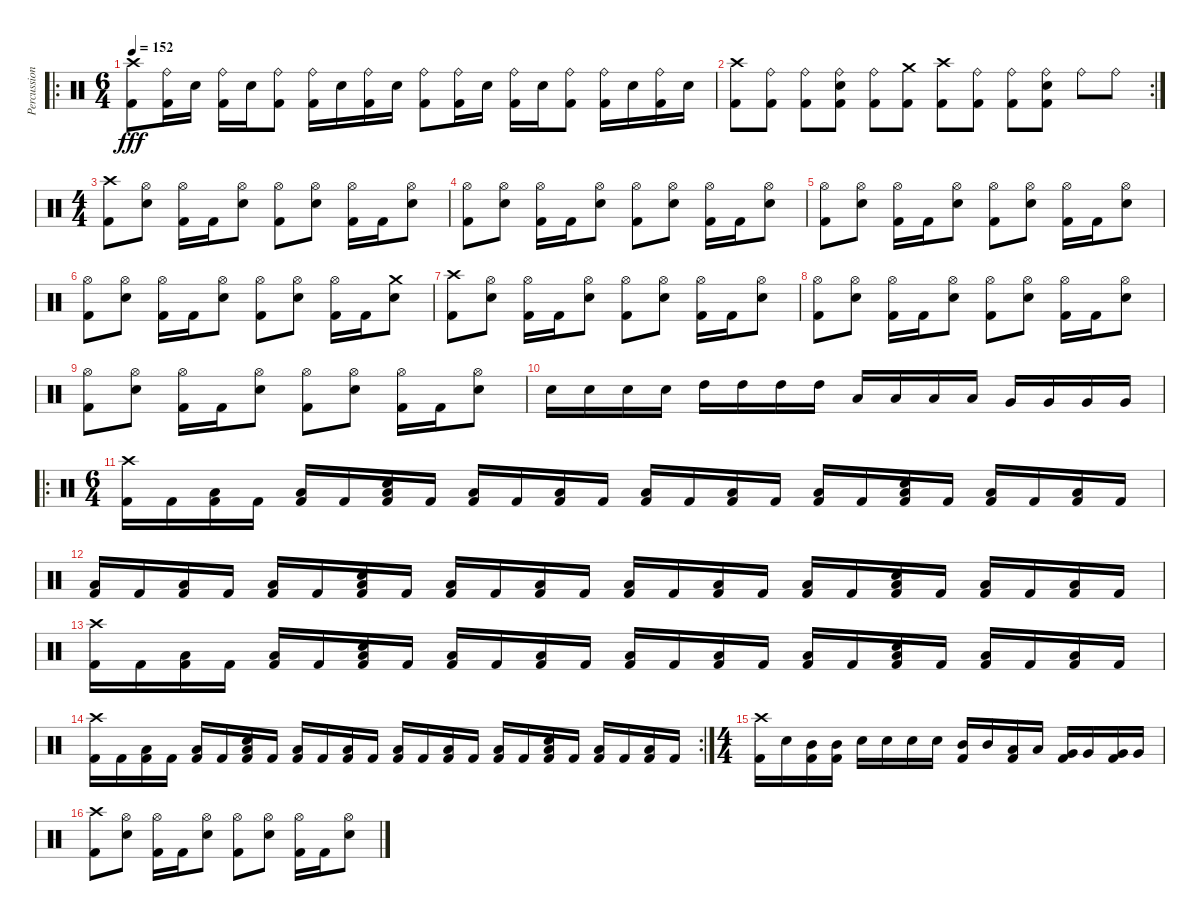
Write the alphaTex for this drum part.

\track ("Percussion" "Percussion") {instrument percussion}
\staff {score}
\articulation defaults
\ro
\ts (6 4)
\tempo 152
\clef neutral
\ks c
("Crash high (hit)" "Kick (hit) 2").8{dy fff} ("Ride (bell)" "Kick (hit) 2").16 "Snare (hit) 2".16 ("Ride (bell)" "Kick (hit) 2").16 "Snare (hit) 2".16 ("Ride (bell)" "Kick (hit) 2").8 ("Ride (bell)" "Kick (hit) 2").16 "Snare (hit) 2".16 ("Ride (bell)" "Kick (hit) 2").16 "Snare (hit) 2".16 ("Ride (bell)" "Kick (hit) 2").8 ("Ride (bell)" "Kick (hit) 2").16 "Snare (hit) 2".16 ("Ride (bell)" "Kick (hit) 2").16 "Snare (hit) 2".16 ("Ride (bell)" "Kick (hit) 2").8 ("Ride (bell)" "Kick (hit) 2").16 "Snare (hit) 2".16 ("Ride (bell)" "Kick (hit) 2").16 "Snare (hit) 2".16 |
\rc 2
("Crash high (hit)" "Kick (hit) 2").8 ("Ride (bell)" "Kick (hit) 2").8 ("Ride (bell)" "Kick (hit) 2").8 ("Ride (bell)" "Kick (hit) 2" "Snare (hit) 2").8 ("Ride (bell)" "Kick (hit) 2").8 ("Crash medium (hit)" "Kick (hit) 2").8 ("Crash high (hit)" "Kick (hit) 2").8 ("Ride (bell)" "Kick (hit) 2").8 ("Ride (bell)" "Kick (hit) 2").8 ("Ride (bell)" "Kick (hit) 2" "Snare (hit) 2").8 "Ride (bell)".8 "Ride (bell)".8 |
\ts (4 4)
("Crash high (hit)" "Kick (hit) 2").8 ("Hi-Hat (open)" "Snare (hit) 2").8 ("Hi-Hat (open)" "Kick (hit) 2").16 "Kick (hit) 2".16 ("Hi-Hat (open)" "Snare (hit) 2").8 ("Hi-Hat (open)" "Kick (hit) 2").8 ("Hi-Hat (open)" "Snare (hit) 2").8 ("Hi-Hat (open)" "Kick (hit) 2").16 "Kick (hit) 2".16 ("Hi-Hat (open)" "Snare (hit) 2").8 |
("Hi-Hat (open)" "Kick (hit) 2").8 ("Hi-Hat (open)" "Snare (hit) 2").8 ("Hi-Hat (open)" "Kick (hit) 2").16 "Kick (hit) 2".16 ("Hi-Hat (open)" "Snare (hit) 2").8 ("Hi-Hat (open)" "Kick (hit) 2").8 ("Hi-Hat (open)" "Snare (hit) 2").8 ("Hi-Hat (open)" "Kick (hit) 2").16 "Kick (hit) 2".16 ("Hi-Hat (open)" "Snare (hit) 2").8 |
("Hi-Hat (open)" "Kick (hit) 2").8 ("Hi-Hat (open)" "Snare (hit) 2").8 ("Hi-Hat (open)" "Kick (hit) 2").16 "Kick (hit) 2".16 ("Hi-Hat (open)" "Snare (hit) 2").8 ("Hi-Hat (open)" "Kick (hit) 2").8 ("Hi-Hat (open)" "Snare (hit) 2").8 ("Hi-Hat (open)" "Kick (hit) 2").16 "Kick (hit) 2".16 ("Hi-Hat (open)" "Snare (hit) 2").8 |
("Hi-Hat (open)" "Kick (hit) 2").8 ("Hi-Hat (open)" "Snare (hit) 2").8 ("Hi-Hat (open)" "Kick (hit) 2").16 "Kick (hit) 2".16 ("Hi-Hat (open)" "Snare (hit) 2").8 ("Hi-Hat (open)" "Kick (hit) 2").8 ("Hi-Hat (open)" "Snare (hit) 2").8 ("Hi-Hat (open)" "Kick (hit) 2").16 "Kick (hit) 2".16 ("Crash medium (hit)" "Snare (hit) 2").8 |
("Crash high (hit)" "Kick (hit) 2").8 ("Hi-Hat (open)" "Snare (hit) 2").8 ("Hi-Hat (open)" "Kick (hit) 2").16 "Kick (hit) 2".16 ("Hi-Hat (open)" "Snare (hit) 2").8 ("Hi-Hat (open)" "Kick (hit) 2").8 ("Hi-Hat (open)" "Snare (hit) 2").8 ("Hi-Hat (open)" "Kick (hit) 2").16 "Kick (hit) 2".16 ("Hi-Hat (open)" "Snare (hit) 2").8 |
("Hi-Hat (open)" "Kick (hit) 2").8 ("Hi-Hat (open)" "Snare (hit) 2").8 ("Hi-Hat (open)" "Kick (hit) 2").16 "Kick (hit) 2".16 ("Hi-Hat (open)" "Snare (hit) 2").8 ("Hi-Hat (open)" "Kick (hit) 2").8 ("Hi-Hat (open)" "Snare (hit) 2").8 ("Hi-Hat (open)" "Kick (hit) 2").16 "Kick (hit) 2".16 ("Hi-Hat (open)" "Snare (hit) 2").8 |
("Hi-Hat (open)" "Kick (hit) 2").8 ("Hi-Hat (open)" "Snare (hit) 2").8 ("Hi-Hat (open)" "Kick (hit) 2").16 "Kick (hit) 2".16 ("Hi-Hat (open)" "Snare (hit) 2").8 ("Hi-Hat (open)" "Kick (hit) 2").8 ("Hi-Hat (open)" "Snare (hit) 2").8 ("Hi-Hat (open)" "Kick (hit) 2").16 "Kick (hit) 2".16 ("Hi-Hat (open)" "Snare (hit) 2").8 |
"Snare (hit) 2".16 "Snare (hit) 2".16 "Snare (hit) 2".16 "Snare (hit) 2".16 "High Tom (hit)".16 "High Tom (hit)".16 "High Tom (hit)".16 "High Tom (hit)".16 "Low Tom (hit)".16 "Low Tom (hit)".16 "Low Tom (hit)".16 "Low Tom (hit)".16 "Very Low Tom (hit)".16 "Very Low Tom (hit)".16 "Very Low Tom (hit)".16 "Very Low Tom (hit)".16 |
\ro
\ts (6 4)
("Crash high (hit)" "Kick (hit) 2").16 "Kick (hit) 2".16 ("Low Tom (hit)" "Kick (hit) 2").16 "Kick (hit) 2".16 ("Low Tom (hit)" "Kick (hit) 2").16 "Kick (hit) 2".16 ("Snare (hit) 2" "Low Tom (hit)" "Kick (hit) 2").16 "Kick (hit) 2".16 ("Low Tom (hit)" "Kick (hit) 2").16 "Kick (hit) 2".16 ("Low Tom (hit)" "Kick (hit) 2").16 "Kick (hit) 2".16 ("Low Tom (hit)" "Kick (hit) 2").16 "Kick (hit) 2".16 ("Low Tom (hit)" "Kick (hit) 2").16 "Kick (hit) 2".16 ("Low Tom (hit)" "Kick (hit) 2").16 "Kick (hit) 2".16 ("Snare (hit) 2" "Low Tom (hit)" "Kick (hit) 2").16 "Kick (hit) 2".16 ("Low Tom (hit)" "Kick (hit) 2").16 "Kick (hit) 2".16 ("Low Tom (hit)" "Kick (hit) 2").16 "Kick (hit) 2".16 |
("Low Tom (hit)" "Kick (hit) 2").16 "Kick (hit) 2".16 ("Low Tom (hit)" "Kick (hit) 2").16 "Kick (hit) 2".16 ("Low Tom (hit)" "Kick (hit) 2").16 "Kick (hit) 2".16 ("Snare (hit) 2" "Low Tom (hit)" "Kick (hit) 2").16 "Kick (hit) 2".16 ("Low Tom (hit)" "Kick (hit) 2").16 "Kick (hit) 2".16 ("Low Tom (hit)" "Kick (hit) 2").16 "Kick (hit) 2".16 ("Low Tom (hit)" "Kick (hit) 2").16 "Kick (hit) 2".16 ("Low Tom (hit)" "Kick (hit) 2").16 "Kick (hit) 2".16 ("Low Tom (hit)" "Kick (hit) 2").16 "Kick (hit) 2".16 ("Snare (hit) 2" "Low Tom (hit)" "Kick (hit) 2").16 "Kick (hit) 2".16 ("Low Tom (hit)" "Kick (hit) 2").16 "Kick (hit) 2".16 ("Low Tom (hit)" "Kick (hit) 2").16 "Kick (hit) 2".16 |
("Crash high (hit)" "Kick (hit) 2").16 "Kick (hit) 2".16 ("Low Tom (hit)" "Kick (hit) 2").16 "Kick (hit) 2".16 ("Low Tom (hit)" "Kick (hit) 2").16 "Kick (hit) 2".16 ("Snare (hit) 2" "Low Tom (hit)" "Kick (hit) 2").16 "Kick (hit) 2".16 ("Low Tom (hit)" "Kick (hit) 2").16 "Kick (hit) 2".16 ("Low Tom (hit)" "Kick (hit) 2").16 "Kick (hit) 2".16 ("Low Tom (hit)" "Kick (hit) 2").16 "Kick (hit) 2".16 ("Low Tom (hit)" "Kick (hit) 2").16 "Kick (hit) 2".16 ("Low Tom (hit)" "Kick (hit) 2").16 "Kick (hit) 2".16 ("Snare (hit) 2" "Low Tom (hit)" "Kick (hit) 2").16 "Kick (hit) 2".16 ("Low Tom (hit)" "Kick (hit) 2").16 "Kick (hit) 2".16 ("Low Tom (hit)" "Kick (hit) 2").16 "Kick (hit) 2".16 |
\rc 2
("Crash high (hit)" "Kick (hit) 2").16 "Kick (hit) 2".16 ("Low Tom (hit)" "Kick (hit) 2").16 "Kick (hit) 2".16 ("Low Tom (hit)" "Kick (hit) 2").16 "Kick (hit) 2".16 ("Snare (hit) 2" "Low Tom (hit)" "Kick (hit) 2").16 "Kick (hit) 2".16 ("Low Tom (hit)" "Kick (hit) 2").16 "Kick (hit) 2".16 ("Low Tom (hit)" "Kick (hit) 2").16 "Kick (hit) 2".16 ("Low Tom (hit)" "Kick (hit) 2").16 "Kick (hit) 2".16 ("Low Tom (hit)" "Kick (hit) 2").16 "Kick (hit) 2".16 ("Low Tom (hit)" "Kick (hit) 2").16 "Kick (hit) 2".16 ("Snare (hit) 2" "Low Tom (hit)" "Kick (hit) 2").16 "Kick (hit) 2".16 ("Low Tom (hit)" "Kick (hit) 2").16 "Kick (hit) 2".16 ("Low Tom (hit)" "Kick (hit) 2").16 "Kick (hit) 2".16 |
\ts (4 4)
("Crash high (hit)" "Kick (hit) 2").16 "Snare (hit) 2".16 ("Mid Tom (hit)" "Kick (hit) 2").16 ("Mid Tom (hit)" "Kick (hit) 2").16 "Snare (hit) 2".16 "Snare (hit) 2".16 "Snare (hit) 2".16 "Snare (hit) 2".16 ("Kick (hit) 2" "Mid Tom (hit)").16 "Mid Tom (hit)".16 ("Kick (hit) 2" "Low Tom (hit)").16 "Low Tom (hit)".16 ("Kick (hit) 2" "Very Low Tom (hit)").16 "Very Low Tom (hit)".16 ("Kick (hit) 2" "Very Low Tom (hit)").16 "Very Low Tom (hit)".16 |
("Crash high (hit)" "Kick (hit) 2").8 ("Hi-Hat (open)" "Snare (hit) 2").8 ("Hi-Hat (open)" "Kick (hit) 2").16 "Kick (hit) 2".16 ("Hi-Hat (open)" "Snare (hit) 2").8 ("Hi-Hat (open)" "Kick (hit) 2").8 ("Hi-Hat (open)" "Snare (hit) 2").8 ("Hi-Hat (open)" "Kick (hit) 2").16 "Kick (hit) 2".16 ("Hi-Hat (open)" "Snare (hit) 2").8
